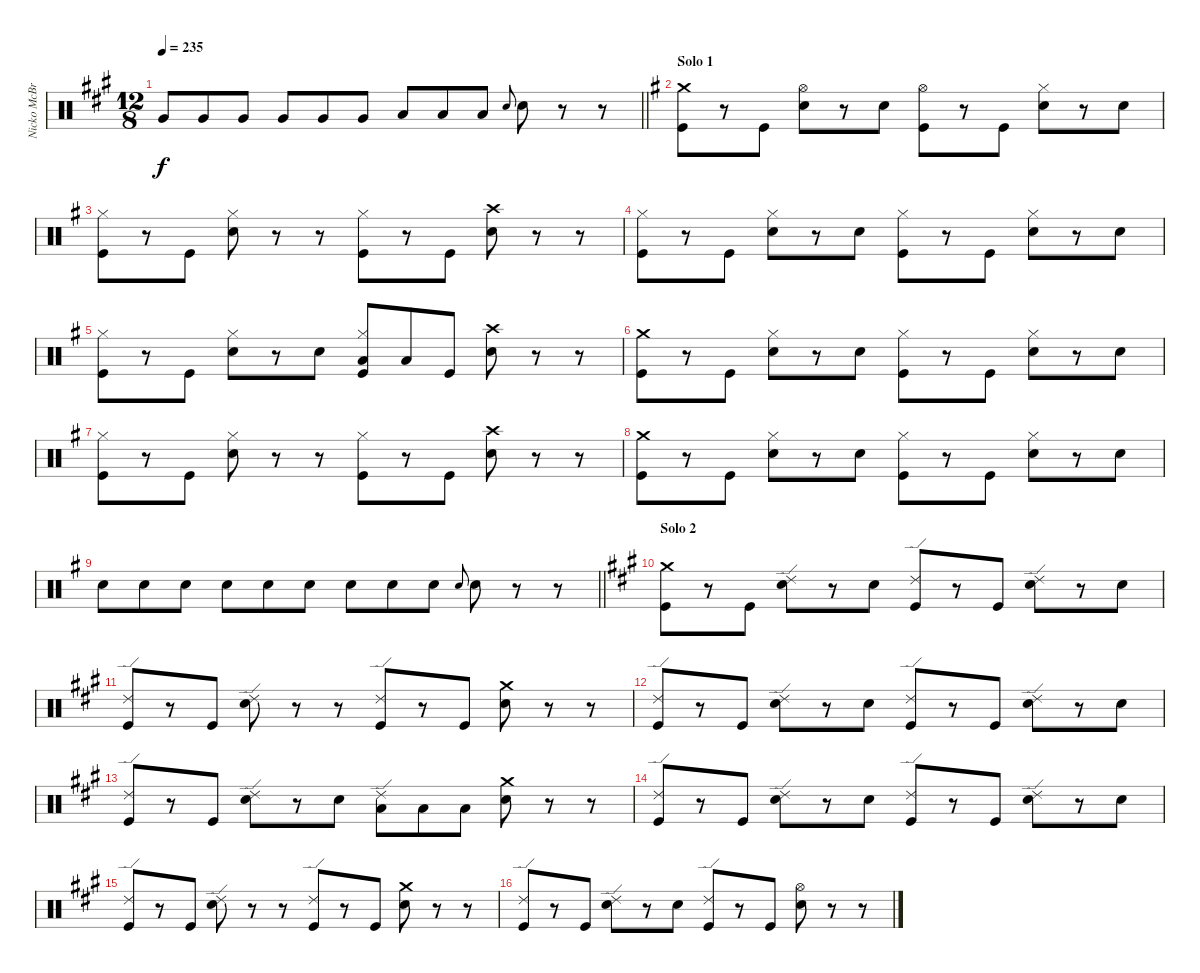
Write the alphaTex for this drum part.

\track ("Nicko McBrain (Drums)" "Nicko McBr") {instrument percussion}
\staff {score}
\articulation defaults
\ts (12 8)
\tempo 235
\clef neutral
\barLineRight lightlight
\ks f#minor "Very Low Tom (hit)".8{dy f} "Very Low Tom (hit)".8 "Very Low Tom (hit)".8 "Very Low Tom (hit)".8 "Very Low Tom (hit)".8 "Very Low Tom (hit)".8 "Low Floor Tom (hit)".8 "Low Floor Tom (hit)".8 "Low Floor Tom (hit)".8 "Snare (hit) 2".8{gr onbeat} "Snare (hit) 2".8
r.8 r.8 |
\section ("" "Solo 1")
\ks eminor
("Crash medium (hit)" "Kick (hit)").8 r.8 "Kick (hit)".8 ("Hi-Hat (open)" "Snare (hit) 2").8 r.8 "Snare (hit) 2".8 ("Hi-Hat (open)" "Kick (hit)").8 r.8 "Kick (hit)".8 ("Hi-Hat (closed)" "Snare (hit) 2").8 r.8 "Snare (hit) 2".8 |
("Hi-Hat (closed)" "Kick (hit)").8 r.8 "Kick (hit)".8 ("Hi-Hat (closed)" "Snare (hit) 2").8 r.8 r.8 ("Hi-Hat (closed)" "Kick (hit)").8 r.8 "Kick (hit)".8 ("Crash high (hit)" "Snare (hit) 2").8 r.8 r.8 |
("Hi-Hat (closed)" "Kick (hit)").8 r.8 "Kick (hit)".8 ("Hi-Hat (closed)" "Snare (hit) 2").8 r.8 "Snare (hit) 2".8 ("Hi-Hat (closed)" "Kick (hit)").8 r.8 "Kick (hit)".8 ("Hi-Hat (closed)" "Snare (hit) 2").8 r.8 "Snare (hit) 2".8 |
("Hi-Hat (closed)" "Kick (hit)").8 r.8 "Kick (hit)".8 ("Hi-Hat (closed)" "Snare (hit) 2").8 r.8 "Snare (hit) 2".8 ("Hi-Hat (closed)" "Low Tom (hit)" "Kick (hit)").8 "Low Tom (hit)".8 "Kick (hit)".8 ("Crash high (hit)" "Snare (hit) 2").8 r.8 r.8 |
("Crash medium (hit)" "Kick (hit)").8 r.8 "Kick (hit)".8 ("Hi-Hat (closed)" "Snare (hit) 2").8 r.8 "Snare (hit) 2".8 ("Hi-Hat (closed)" "Kick (hit)").8 r.8 "Kick (hit)".8 ("Hi-Hat (closed)" "Snare (hit) 2").8 r.8 "Snare (hit) 2".8 |
("Hi-Hat (closed)" "Kick (hit)").8 r.8 "Kick (hit)".8 ("Hi-Hat (closed)" "Snare (hit) 2").8 r.8 r.8 ("Hi-Hat (closed)" "Kick (hit)").8 r.8 "Kick (hit)".8 ("Crash high (hit)" "Snare (hit) 2").8 r.8 r.8 |
("Crash medium (hit)" "Kick (hit)").8 r.8 "Kick (hit)".8 ("Hi-Hat (closed)" "Snare (hit) 2").8 r.8 "Snare (hit) 2".8 ("Hi-Hat (closed)" "Kick (hit)").8 r.8 "Kick (hit)".8 ("Hi-Hat (closed)" "Snare (hit) 2").8 r.8 "Snare (hit) 2".8 |
\barLineRight lightlight "Snare (hit) 2".8 "Snare (hit) 2".8 "Snare (hit) 2".8 "Snare (hit) 2".8 "Snare (hit) 2".8 "Snare (hit) 2".8 "Snare (hit) 2".8 "Snare (hit) 2".8 "Snare (hit) 2".8 "Snare (hit) 2".8{gr onbeat} "Snare (hit) 2".8
r.8 r.8 |
\section ("" "Solo 2")
\ks f#minor
("Crash medium (hit)" "Kick (hit)").8 r.8 "Kick (hit)".8 ("Ride (edge) 2" "Snare (hit) 2").8 r.8 "Snare (hit) 2".8 ("Ride (edge) 2" "Kick (hit)").8 r.8 "Kick (hit)".8 ("Ride (edge) 2" "Snare (hit) 2").8 r.8 "Snare (hit) 2".8 |
("Ride (edge) 2" "Kick (hit)").8 r.8 "Kick (hit)".8 ("Ride (edge) 2" "Snare (hit) 2").8 r.8 r.8 ("Ride (edge) 2" "Kick (hit)").8 r.8 "Kick (hit)".8 ("Crash medium (hit)" "Snare (hit) 2").8 r.8 r.8 |
("Ride (edge) 2" "Kick (hit)").8 r.8 "Kick (hit)".8 ("Ride (edge) 2" "Snare (hit) 2").8 r.8 "Snare (hit) 2".8 ("Ride (edge) 2" "Kick (hit)").8 r.8 "Kick (hit)".8 ("Ride (edge) 2" "Snare (hit) 2").8 r.8 "Snare (hit) 2".8 |
("Ride (edge) 2" "Kick (hit)").8 r.8 "Kick (hit)".8 ("Ride (edge) 2" "Snare (hit) 2").8 r.8 "Snare (hit) 2".8 ("Ride (edge) 2" "Low Tom (hit)").8 "Low Tom (hit)".8 "Low Tom (hit)".8 ("Crash medium (hit)" "Snare (hit) 2").8 r.8 r.8 |
("Ride (edge) 2" "Kick (hit)").8 r.8 "Kick (hit)".8 ("Ride (edge) 2" "Snare (hit) 2").8 r.8 "Snare (hit) 2".8 ("Ride (edge) 2" "Kick (hit)").8 r.8 "Kick (hit)".8 ("Ride (edge) 2" "Snare (hit) 2").8 r.8 "Snare (hit) 2".8 |
("Ride (edge) 2" "Kick (hit)").8 r.8 "Kick (hit)".8 ("Ride (edge) 2" "Snare (hit) 2").8 r.8 r.8 ("Ride (edge) 2" "Kick (hit)").8 r.8 "Kick (hit)".8 ("Crash medium (hit)" "Snare (hit) 2").8 r.8 r.8 |
("Ride (edge) 2" "Kick (hit)").8 r.8 "Kick (hit)".8 ("Ride (edge) 2" "Snare (hit) 2").8 r.8 "Snare (hit) 2".8 ("Ride (edge) 2" "Kick (hit)").8 r.8 "Kick (hit)".8 ("Hi-Hat (open)" "Snare (hit) 2").8 r.8 r.8
